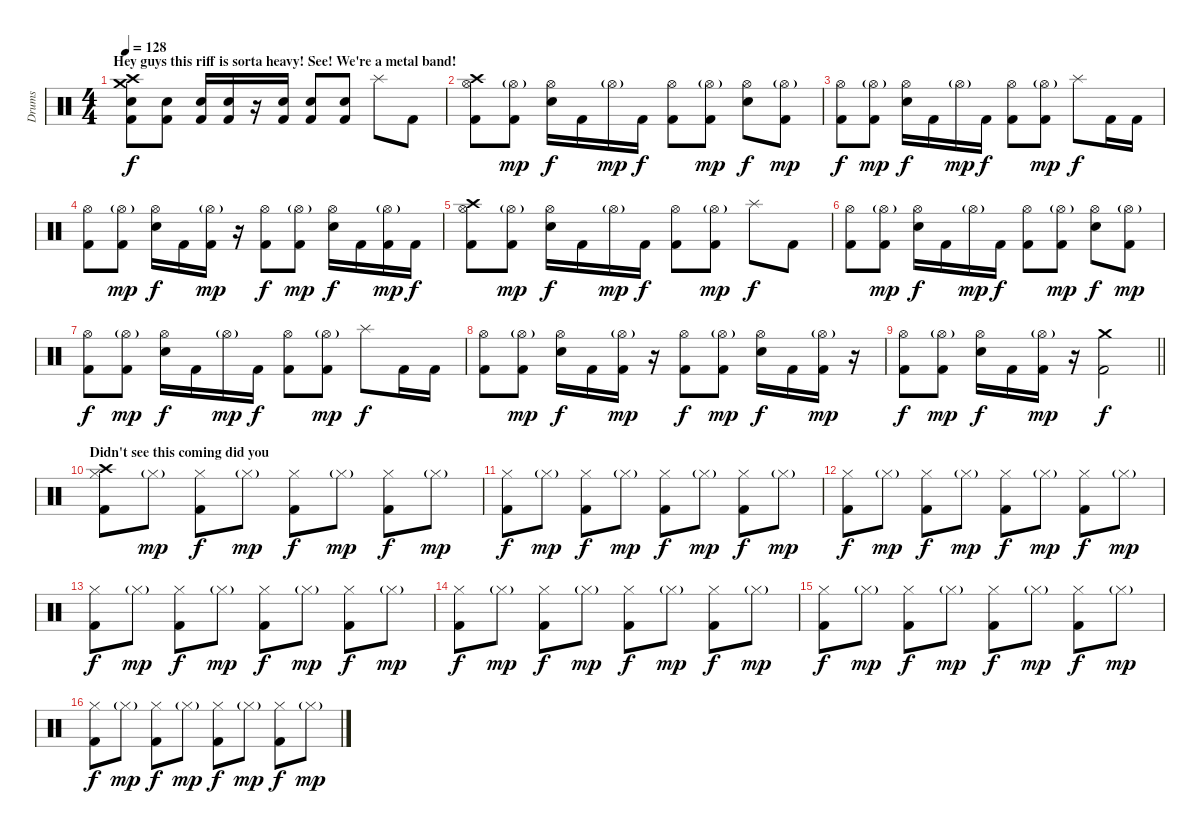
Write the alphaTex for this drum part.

\track ("Drums" "Drums") {instrument percussion}
\staff {score}
\articulation defaults
\ts (4 4)
\section ("" "Hey guys this riff is sorta heavy! See! We're a metal band!")
\tempo 128
\clef neutral
\ks c
("Crash high (hit)" "Crash medium (hit)" "Snare (hit) 2" "Kick (hit) 2").8{dy f} ("Snare (hit) 2" "Kick (hit) 2").8 ("Snare (hit) 2" "Kick (hit) 2").16 ("Snare (hit) 2" "Kick (hit) 2").16 r.16 ("Snare (hit) 2" "Kick (hit) 2").16 ("Snare (hit) 2" "Kick (hit) 2").8 ("Snare (hit) 2" "Kick (hit) 2").8 "Splash (hit)".8 "Kick (hit) 2".8 |
("Crash high (hit)" "Hi-Hat (open)" "Kick (hit) 2").8 ("Hi-Hat (open)"{g} "Kick (hit) 2").8{dy mp} ("Hi-Hat (open)" "Snare (hit) 2").16{dy f} "Kick (hit) 2".16 "Hi-Hat (open)"{g}.16{dy mp} "Kick (hit) 2".16{dy f} ("Hi-Hat (open)" "Kick (hit) 2").8 ("Hi-Hat (open)"{g} "Kick (hit) 2").8{dy mp} ("Hi-Hat (open)" "Snare (hit) 2").8{dy f} ("Hi-Hat (open)"{g} "Kick (hit) 2").8{dy mp} |
("Hi-Hat (open)" "Kick (hit) 2").8{dy f} ("Hi-Hat (open)"{g} "Kick (hit) 2").8{dy mp} ("Hi-Hat (open)" "Snare (hit) 2").16{dy f} "Kick (hit) 2".16 "Hi-Hat (open)"{g}.16{dy mp} "Kick (hit) 2".16{dy f} ("Hi-Hat (open)" "Kick (hit) 2").8 ("Hi-Hat (open)"{g} "Kick (hit) 2").8{dy mp} "Splash (hit)".8{dy f} "Kick (hit) 2".16 "Kick (hit) 2".16 |
("Hi-Hat (open)" "Kick (hit) 2").8 ("Hi-Hat (open)"{g} "Kick (hit) 2").8{dy mp} ("Hi-Hat (open)" "Snare (hit) 2").16{dy f} "Kick (hit) 2".16 ("Hi-Hat (open)"{g} "Kick (hit) 2").16{dy mp} r.16 ("Hi-Hat (open)" "Kick (hit) 2").8{dy f} ("Hi-Hat (open)"{g} "Kick (hit) 2").8{dy mp} ("Hi-Hat (open)" "Snare (hit) 2").16{dy f} "Kick (hit) 2".16 ("Hi-Hat (open)"{g} "Kick (hit) 2").16{dy mp} "Kick (hit) 2".16{dy f} |
("Crash high (hit)" "Hi-Hat (open)" "Kick (hit) 2").8 ("Hi-Hat (open)"{g} "Kick (hit) 2").8{dy mp} ("Hi-Hat (open)" "Snare (hit) 2").16{dy f} "Kick (hit) 2".16 "Hi-Hat (open)"{g}.16{dy mp} "Kick (hit) 2".16{dy f} ("Hi-Hat (open)" "Kick (hit) 2").8 ("Hi-Hat (open)"{g} "Kick (hit) 2").8{dy mp} "Splash (hit)".8{dy f} "Kick (hit) 2".8 |
("Hi-Hat (open)" "Kick (hit) 2").8 ("Hi-Hat (open)"{g} "Kick (hit) 2").8{dy mp} ("Hi-Hat (open)" "Snare (hit) 2").16{dy f} "Kick (hit) 2".16 "Hi-Hat (open)"{g}.16{dy mp} "Kick (hit) 2".16{dy f} ("Hi-Hat (open)" "Kick (hit) 2").8 ("Hi-Hat (open)"{g} "Kick (hit) 2").8{dy mp} ("Hi-Hat (open)" "Snare (hit) 2").8{dy f} ("Hi-Hat (open)"{g} "Kick (hit) 2").8{dy mp} |
("Hi-Hat (open)" "Kick (hit) 2").8{dy f} ("Hi-Hat (open)"{g} "Kick (hit) 2").8{dy mp} ("Hi-Hat (open)" "Snare (hit) 2").16{dy f} "Kick (hit) 2".16 "Hi-Hat (open)"{g}.16{dy mp} "Kick (hit) 2".16{dy f} ("Hi-Hat (open)" "Kick (hit) 2").8 ("Hi-Hat (open)"{g} "Kick (hit) 2").8{dy mp} "Splash (hit)".8{dy f} "Kick (hit) 2".16 "Kick (hit) 2".16 |
("Hi-Hat (open)" "Kick (hit) 2").8 ("Hi-Hat (open)"{g} "Kick (hit) 2").8{dy mp} ("Hi-Hat (open)" "Snare (hit) 2").16{dy f} "Kick (hit) 2".16 ("Hi-Hat (open)"{g} "Kick (hit) 2").16{dy mp} r.16 ("Hi-Hat (open)" "Kick (hit) 2").8{dy f} ("Hi-Hat (open)"{g} "Kick (hit) 2").8{dy mp} ("Hi-Hat (open)" "Snare (hit) 2").16{dy f} "Kick (hit) 2".16 ("Hi-Hat (open)"{g} "Kick (hit) 2").16{dy mp} r.16 |
\barLineRight lightlight
("Hi-Hat (open)" "Kick (hit) 2").8{dy f} ("Hi-Hat (open)"{g} "Kick (hit) 2").8{dy mp} ("Hi-Hat (open)" "Snare (hit) 2").16{dy f} "Kick (hit) 2".16 ("Hi-Hat (open)"{g} "Kick (hit) 2").16{dy mp} r.16 ("Crash medium (hit)" "Kick (hit) 2").2{dy f} |
\section ("" "Didn't see this coming did you")
("Crash high (hit)" "Hi-Hat (closed)" "Kick (hit) 2").8 "Hi-Hat (closed)"{g}.8{dy mp} ("Hi-Hat (closed)" "Kick (hit) 2").8{dy f} "Hi-Hat (closed)"{g}.8{dy mp} ("Hi-Hat (closed)" "Kick (hit) 2").8{dy f} "Hi-Hat (closed)"{g}.8{dy mp} ("Hi-Hat (closed)" "Kick (hit) 2").8{dy f} "Hi-Hat (closed)"{g}.8{dy mp} |
("Hi-Hat (closed)" "Kick (hit) 2").8{dy f} "Hi-Hat (closed)"{g}.8{dy mp} ("Hi-Hat (closed)" "Kick (hit) 2").8{dy f} "Hi-Hat (closed)"{g}.8{dy mp} ("Hi-Hat (closed)" "Kick (hit) 2").8{dy f} "Hi-Hat (closed)"{g}.8{dy mp} ("Hi-Hat (closed)" "Kick (hit) 2").8{dy f} "Hi-Hat (closed)"{g}.8{dy mp} |
("Hi-Hat (closed)" "Kick (hit) 2").8{dy f} "Hi-Hat (closed)"{g}.8{dy mp} ("Hi-Hat (closed)" "Kick (hit) 2").8{dy f} "Hi-Hat (closed)"{g}.8{dy mp} ("Hi-Hat (closed)" "Kick (hit) 2").8{dy f} "Hi-Hat (closed)"{g}.8{dy mp} ("Hi-Hat (closed)" "Kick (hit) 2").8{dy f} "Hi-Hat (closed)"{g}.8{dy mp} |
("Hi-Hat (closed)" "Kick (hit) 2").8{dy f} "Hi-Hat (closed)"{g}.8{dy mp} ("Hi-Hat (closed)" "Kick (hit) 2").8{dy f} "Hi-Hat (closed)"{g}.8{dy mp} ("Hi-Hat (closed)" "Kick (hit) 2").8{dy f} "Hi-Hat (closed)"{g}.8{dy mp} ("Hi-Hat (closed)" "Kick (hit) 2").8{dy f} "Hi-Hat (closed)"{g}.8{dy mp} |
("Hi-Hat (closed)" "Kick (hit) 2").8{dy f} "Hi-Hat (closed)"{g}.8{dy mp} ("Hi-Hat (closed)" "Kick (hit) 2").8{dy f} "Hi-Hat (closed)"{g}.8{dy mp} ("Hi-Hat (closed)" "Kick (hit) 2").8{dy f} "Hi-Hat (closed)"{g}.8{dy mp} ("Hi-Hat (closed)" "Kick (hit) 2").8{dy f} "Hi-Hat (closed)"{g}.8{dy mp} |
("Hi-Hat (closed)" "Kick (hit) 2").8{dy f} "Hi-Hat (closed)"{g}.8{dy mp} ("Hi-Hat (closed)" "Kick (hit) 2").8{dy f} "Hi-Hat (closed)"{g}.8{dy mp} ("Hi-Hat (closed)" "Kick (hit) 2").8{dy f} "Hi-Hat (closed)"{g}.8{dy mp} ("Hi-Hat (closed)" "Kick (hit) 2").8{dy f} "Hi-Hat (closed)"{g}.8{dy mp} |
("Hi-Hat (closed)" "Kick (hit) 2").8{dy f} "Hi-Hat (closed)"{g}.8{dy mp} ("Hi-Hat (closed)" "Kick (hit) 2").8{dy f} "Hi-Hat (closed)"{g}.8{dy mp} ("Hi-Hat (closed)" "Kick (hit) 2").8{dy f} "Hi-Hat (closed)"{g}.8{dy mp} ("Hi-Hat (closed)" "Kick (hit) 2").8{dy f} "Hi-Hat (closed)"{g}.8{dy mp}
